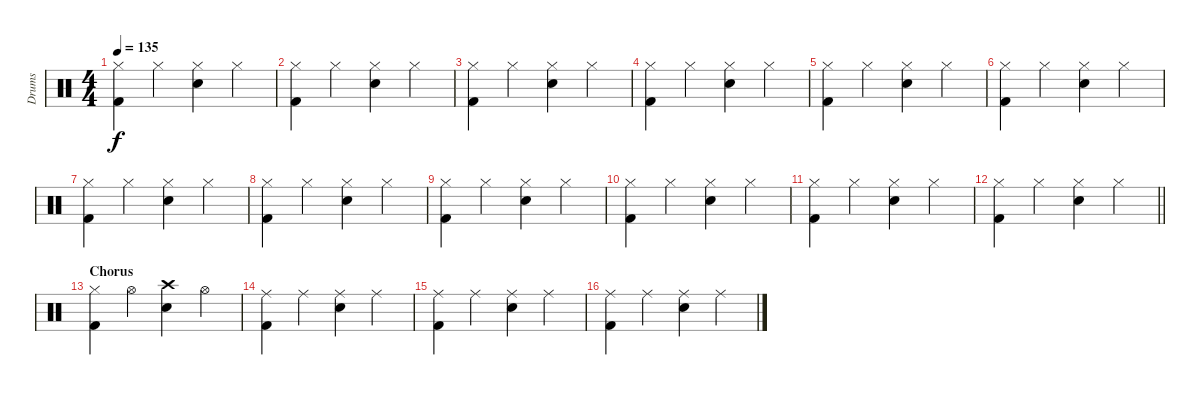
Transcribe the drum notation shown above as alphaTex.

\track ("Drums" "Drums") {instrument percussion}
\staff {score}
\articulation defaults
\ts (4 4)
\tempo 135
\clef neutral
\ks c
("Hi-Hat (closed)" "Kick (hit) 2").4{dy f} "Hi-Hat (closed)".4 ("Hi-Hat (closed)" "Electric Snare (hit)").4 "Hi-Hat (closed)".4 |
("Hi-Hat (closed)" "Kick (hit) 2").4 "Hi-Hat (closed)".4 ("Hi-Hat (closed)" "Electric Snare (hit)").4 "Hi-Hat (closed)".4 |
("Hi-Hat (closed)" "Kick (hit) 2").4 "Hi-Hat (closed)".4 ("Hi-Hat (closed)" "Electric Snare (hit)").4 "Hi-Hat (closed)".4 |
("Hi-Hat (closed)" "Kick (hit) 2").4 "Hi-Hat (closed)".4 ("Hi-Hat (closed)" "Electric Snare (hit)").4 "Hi-Hat (closed)".4 |
("Hi-Hat (closed)" "Kick (hit) 2").4 "Hi-Hat (closed)".4 ("Hi-Hat (closed)" "Electric Snare (hit)").4 "Hi-Hat (closed)".4 |
("Hi-Hat (closed)" "Kick (hit) 2").4 "Hi-Hat (closed)".4 ("Hi-Hat (closed)" "Electric Snare (hit)").4 "Hi-Hat (closed)".4 |
("Hi-Hat (closed)" "Kick (hit) 2").4 "Hi-Hat (closed)".4 ("Hi-Hat (closed)" "Electric Snare (hit)").4 "Hi-Hat (closed)".4 |
("Hi-Hat (closed)" "Kick (hit) 2").4 "Hi-Hat (closed)".4 ("Hi-Hat (closed)" "Electric Snare (hit)").4 "Hi-Hat (closed)".4 |
("Hi-Hat (closed)" "Kick (hit) 2").4 "Hi-Hat (closed)".4 ("Hi-Hat (closed)" "Electric Snare (hit)").4 "Hi-Hat (closed)".4 |
("Hi-Hat (closed)" "Kick (hit) 2").4 "Hi-Hat (closed)".4 ("Hi-Hat (closed)" "Electric Snare (hit)").4 "Hi-Hat (closed)".4 |
("Hi-Hat (closed)" "Kick (hit) 2").4 "Hi-Hat (closed)".4 ("Hi-Hat (closed)" "Electric Snare (hit)").4 "Hi-Hat (closed)".4 |
\barLineRight lightlight
("Hi-Hat (closed)" "Kick (hit) 2").4 "Hi-Hat (closed)".4 ("Hi-Hat (closed)" "Electric Snare (hit)").4 "Hi-Hat (closed)".4 |
\section ("" "Chorus")
("Hi-Hat (closed)" "Kick (hit) 2").4 "Hi-Hat (open)".4 ("Crash high (hit)" "Electric Snare (hit)").4 "Hi-Hat (open)".4 |
("Ride (middle)" "Kick (hit) 2").4 "Ride (middle)".4 ("Ride (middle)" "Electric Snare (hit)").4 "Ride (middle)".4 |
("Ride (middle)" "Kick (hit) 2").4 "Ride (middle)".4 ("Ride (middle)" "Electric Snare (hit)").4 "Ride (middle)".4 |
("Ride (middle)" "Kick (hit) 2").4 "Ride (middle)".4 ("Ride (middle)" "Electric Snare (hit)").4 "Ride (middle)".4
